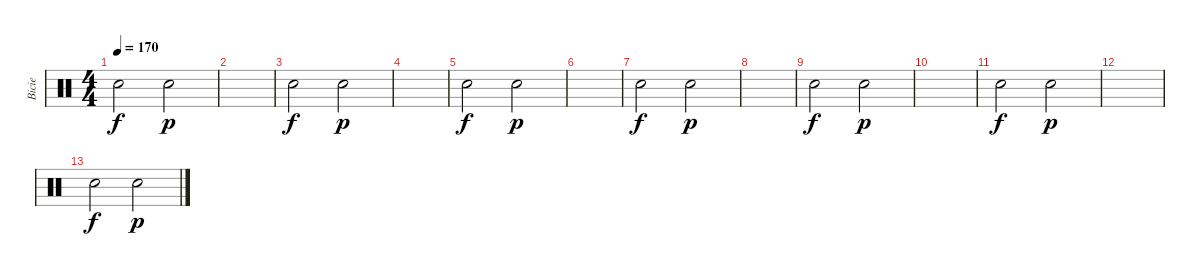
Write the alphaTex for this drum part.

\track ("Bicie" "Bicie") {instrument percussion}
\staff {score}
\articulation defaults
\ts (4 4)
\tempo 170
\clef neutral
\ks c "Snare (hit) 2".2{dy f} "Snare (hit) 2".2{dy p}
|
|
"Snare (hit) 2".2{dy f} "Snare (hit) 2".2{dy p} |
|
"Snare (hit) 2".2{dy f} "Snare (hit) 2".2{dy p} |
|
"Snare (hit) 2".2{dy f} "Snare (hit) 2".2{dy p} |
|
"Snare (hit) 2".2{dy f} "Snare (hit) 2".2{dy p} |
|
"Snare (hit) 2".2{dy f} "Snare (hit) 2".2{dy p} |
|
"Snare (hit) 2".2{dy f} "Snare (hit) 2".2{dy p}
